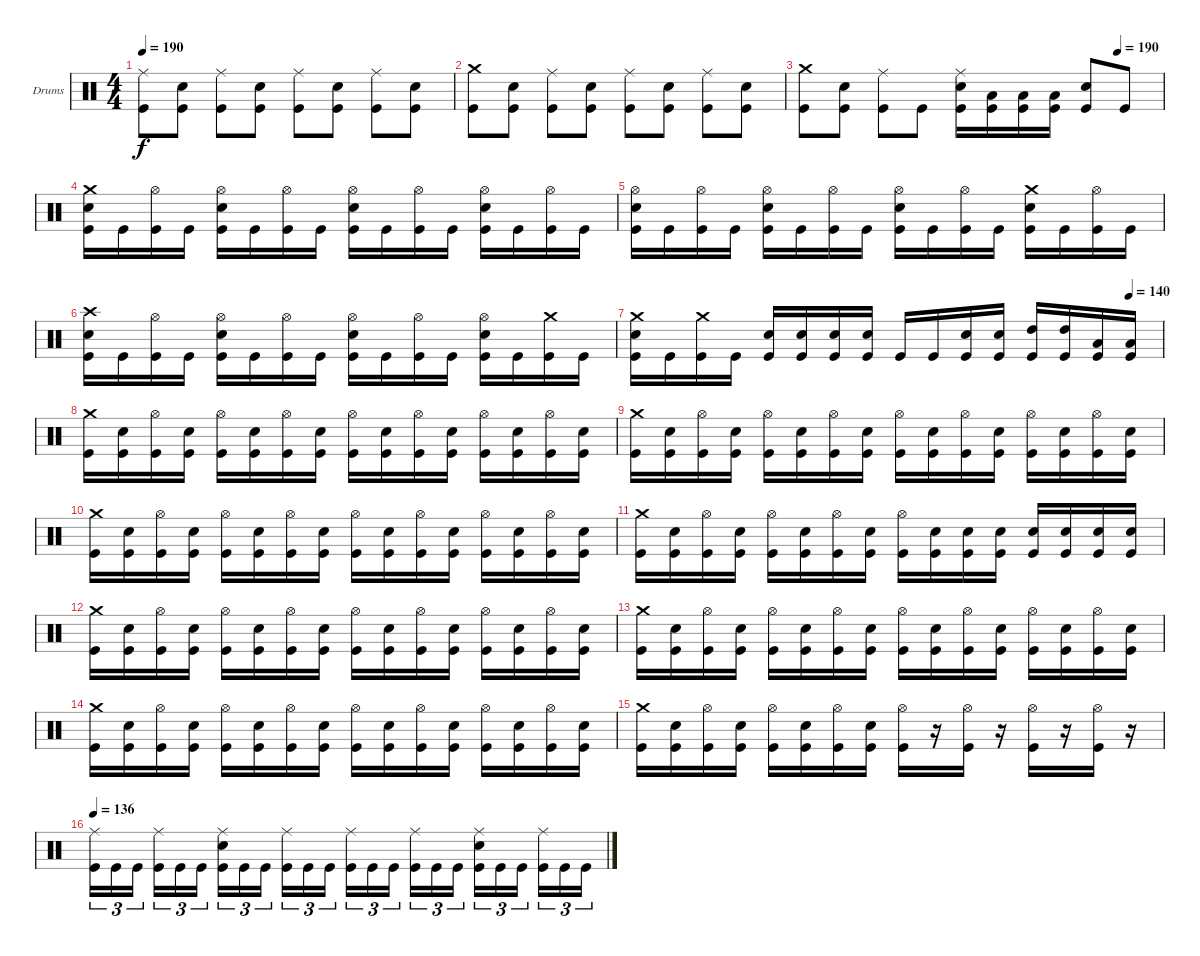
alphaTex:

\bracketExtendMode groupsimilarinstruments
\firstSystemTrackNameOrientation horizontal
\otherSystemsTrackNameOrientation horizontal
\track ("Drumkit" "Drums") {instrument percussion}
\staff {score}
\articulation defaults
\ts (4 4)
\tempo 190
\clef neutral
\ks c
("Ride (middle)" "Kick (hit)").8{dy f} ("Snare (hit) 2" "Kick (hit)").8 ("Ride (middle)" "Kick (hit)").8 ("Snare (hit) 2" "Kick (hit)").8 ("Ride (middle)" "Kick (hit)").8 ("Snare (hit) 2" "Kick (hit)").8 ("Ride (middle)" "Kick (hit)").8 ("Snare (hit) 2" "Kick (hit)").8 |
("Crash medium (hit)" "Kick (hit)").8 ("Snare (hit) 2" "Kick (hit)").8 ("Ride (middle)" "Kick (hit)").8 ("Snare (hit) 2" "Kick (hit)").8 ("Ride (middle)" "Kick (hit)").8 ("Snare (hit) 2" "Kick (hit)").8 ("Ride (middle)" "Kick (hit)").8 ("Snare (hit) 2" "Kick (hit)").8 |
\tempo (190 0.875)
("Crash medium (hit)" "Kick (hit)").8 ("Snare (hit) 2" "Kick (hit)").8 ("Ride (middle)" "Kick (hit)").8 "Kick (hit)".8 ("Ride (middle)" "Snare (hit) 2" "Kick (hit)").16 ("Low Tom (hit)" "Kick (hit)").16 ("Low Tom (hit)" "Kick (hit)").16 ("Low Tom (hit)" "Kick (hit)").16 ("Snare (hit) 2" "Kick (hit)").8 "Kick (hit)".8 |
("Crash medium (hit)" "Snare (hit) 2" "Kick (hit)").16 "Kick (hit)".16 ("Hi-Hat (open)" "Kick (hit)").16 "Kick (hit)".16 ("Hi-Hat (open)" "Snare (hit) 2" "Kick (hit)").16 "Kick (hit)".16 ("Hi-Hat (open)" "Kick (hit)").16 "Kick (hit)".16 ("Hi-Hat (open)" "Snare (hit) 2" "Kick (hit)").16 "Kick (hit)".16 ("Hi-Hat (open)" "Kick (hit)").16 "Kick (hit)".16 ("Hi-Hat (open)" "Snare (hit) 2" "Kick (hit)").16 "Kick (hit)".16 ("Hi-Hat (open)" "Kick (hit)").16 "Kick (hit)".16 |
("Hi-Hat (open)" "Snare (hit) 2" "Kick (hit)").16 "Kick (hit)".16 ("Hi-Hat (open)" "Kick (hit)").16 "Kick (hit)".16 ("Hi-Hat (open)" "Snare (hit) 2" "Kick (hit)").16 "Kick (hit)".16 ("Hi-Hat (open)" "Kick (hit)").16 "Kick (hit)".16 ("Hi-Hat (open)" "Snare (hit) 2" "Kick (hit)").16 "Kick (hit)".16 ("Hi-Hat (open)" "Kick (hit)").16 "Kick (hit)".16 ("Crash medium (hit)" "Snare (hit) 2" "Kick (hit)").16 "Kick (hit)".16 ("Hi-Hat (open)" "Kick (hit)").16 "Kick (hit)".16 |
("Crash high (hit)" "Snare (hit) 2" "Kick (hit)").16 "Kick (hit)".16 ("Hi-Hat (open)" "Kick (hit)").16 "Kick (hit)".16 ("Hi-Hat (open)" "Snare (hit) 2" "Kick (hit)").16 "Kick (hit)".16 ("Hi-Hat (open)" "Kick (hit)").16 "Kick (hit)".16 ("Hi-Hat (open)" "Snare (hit) 2" "Kick (hit)").16 "Kick (hit)".16 ("Hi-Hat (open)" "Kick (hit)").16 "Kick (hit)".16 ("Hi-Hat (open)" "Snare (hit) 2" "Kick (hit)").16 "Kick (hit)".16 ("Crash medium (hit)" "Kick (hit)").16 "Kick (hit)".16 |
\tempo (140 0.9375)
("Crash medium (hit)" "Snare (hit) 2" "Kick (hit)").16 "Kick (hit)".16 ("Crash medium (hit)" "Kick (hit)").16 "Kick (hit)".16 ("Snare (hit) 2" "Kick (hit)").16 ("Snare (hit) 2" "Kick (hit)").16 ("Snare (hit) 2" "Kick (hit)").16 ("Snare (hit) 2" "Kick (hit)").16 "Kick (hit)".16 "Kick (hit)".16 ("Snare (hit) 2" "Kick (hit)").16 ("Snare (hit) 2" "Kick (hit)").16 ("High Tom (hit)" "Kick (hit)").16 ("High Tom (hit)" "Kick (hit)").16 ("Low Tom (hit)" "Kick (hit)").16 ("Low Tom (hit)" "Kick (hit)").16 |
("Crash medium (hit)" "Kick (hit)").16 ("Snare (hit) 2" "Kick (hit)").16 ("Hi-Hat (open)" "Kick (hit)").16 ("Snare (hit) 2" "Kick (hit)").16 ("Hi-Hat (open)" "Kick (hit)").16 ("Snare (hit) 2" "Kick (hit)").16 ("Hi-Hat (open)" "Kick (hit)").16 ("Snare (hit) 2" "Kick (hit)").16 ("Hi-Hat (open)" "Kick (hit)").16 ("Snare (hit) 2" "Kick (hit)").16 ("Hi-Hat (open)" "Kick (hit)").16 ("Snare (hit) 2" "Kick (hit)").16 ("Hi-Hat (open)" "Kick (hit)").16 ("Snare (hit) 2" "Kick (hit)").16 ("Hi-Hat (open)" "Kick (hit)").16 ("Snare (hit) 2" "Kick (hit)").16 |
("Crash medium (hit)" "Kick (hit)").16 ("Snare (hit) 2" "Kick (hit)").16 ("Hi-Hat (open)" "Kick (hit)").16 ("Snare (hit) 2" "Kick (hit)").16 ("Hi-Hat (open)" "Kick (hit)").16 ("Snare (hit) 2" "Kick (hit)").16 ("Hi-Hat (open)" "Kick (hit)").16 ("Snare (hit) 2" "Kick (hit)").16 ("Hi-Hat (open)" "Kick (hit)").16 ("Snare (hit) 2" "Kick (hit)").16 ("Hi-Hat (open)" "Kick (hit)").16 ("Snare (hit) 2" "Kick (hit)").16 ("Hi-Hat (open)" "Kick (hit)").16 ("Snare (hit) 2" "Kick (hit)").16 ("Hi-Hat (open)" "Kick (hit)").16 ("Snare (hit) 2" "Kick (hit)").16 |
("Crash medium (hit)" "Kick (hit)").16 ("Snare (hit) 2" "Kick (hit)").16 ("Hi-Hat (open)" "Kick (hit)").16 ("Snare (hit) 2" "Kick (hit)").16 ("Hi-Hat (open)" "Kick (hit)").16 ("Snare (hit) 2" "Kick (hit)").16 ("Hi-Hat (open)" "Kick (hit)").16 ("Snare (hit) 2" "Kick (hit)").16 ("Hi-Hat (open)" "Kick (hit)").16 ("Snare (hit) 2" "Kick (hit)").16 ("Hi-Hat (open)" "Kick (hit)").16 ("Snare (hit) 2" "Kick (hit)").16 ("Hi-Hat (open)" "Kick (hit)").16 ("Snare (hit) 2" "Kick (hit)").16 ("Hi-Hat (open)" "Kick (hit)").16 ("Snare (hit) 2" "Kick (hit)").16 |
("Crash medium (hit)" "Kick (hit)").16 ("Snare (hit) 2" "Kick (hit)").16 ("Hi-Hat (open)" "Kick (hit)").16 ("Snare (hit) 2" "Kick (hit)").16 ("Hi-Hat (open)" "Kick (hit)").16 ("Snare (hit) 2" "Kick (hit)").16 ("Hi-Hat (open)" "Kick (hit)").16 ("Snare (hit) 2" "Kick (hit)").16 ("Hi-Hat (open)" "Kick (hit)").16 ("Snare (hit) 2" "Kick (hit)").16 ("Snare (hit) 2" "Kick (hit)").16 ("Snare (hit) 2" "Kick (hit)").16 ("Snare (hit) 2" "Kick (hit)").16 ("Snare (hit) 2" "Kick (hit)").16 ("Snare (hit) 2" "Kick (hit)").16 ("Snare (hit) 2" "Kick (hit)").16 |
("Crash medium (hit)" "Kick (hit)").16 ("Snare (hit) 2" "Kick (hit)").16 ("Hi-Hat (open)" "Kick (hit)").16 ("Snare (hit) 2" "Kick (hit)").16 ("Hi-Hat (open)" "Kick (hit)").16 ("Snare (hit) 2" "Kick (hit)").16 ("Hi-Hat (open)" "Kick (hit)").16 ("Snare (hit) 2" "Kick (hit)").16 ("Hi-Hat (open)" "Kick (hit)").16 ("Snare (hit) 2" "Kick (hit)").16 ("Hi-Hat (open)" "Kick (hit)").16 ("Snare (hit) 2" "Kick (hit)").16 ("Hi-Hat (open)" "Kick (hit)").16 ("Snare (hit) 2" "Kick (hit)").16 ("Hi-Hat (open)" "Kick (hit)").16 ("Snare (hit) 2" "Kick (hit)").16 |
("Crash medium (hit)" "Kick (hit)").16 ("Snare (hit) 2" "Kick (hit)").16 ("Hi-Hat (open)" "Kick (hit)").16 ("Snare (hit) 2" "Kick (hit)").16 ("Hi-Hat (open)" "Kick (hit)").16 ("Snare (hit) 2" "Kick (hit)").16 ("Hi-Hat (open)" "Kick (hit)").16 ("Snare (hit) 2" "Kick (hit)").16 ("Hi-Hat (open)" "Kick (hit)").16 ("Snare (hit) 2" "Kick (hit)").16 ("Hi-Hat (open)" "Kick (hit)").16 ("Snare (hit) 2" "Kick (hit)").16 ("Hi-Hat (open)" "Kick (hit)").16 ("Snare (hit) 2" "Kick (hit)").16 ("Hi-Hat (open)" "Kick (hit)").16 ("Snare (hit) 2" "Kick (hit)").16 |
("Crash medium (hit)" "Kick (hit)").16 ("Snare (hit) 2" "Kick (hit)").16 ("Hi-Hat (open)" "Kick (hit)").16 ("Snare (hit) 2" "Kick (hit)").16 ("Hi-Hat (open)" "Kick (hit)").16 ("Snare (hit) 2" "Kick (hit)").16 ("Hi-Hat (open)" "Kick (hit)").16 ("Snare (hit) 2" "Kick (hit)").16 ("Hi-Hat (open)" "Kick (hit)").16 ("Snare (hit) 2" "Kick (hit)").16 ("Hi-Hat (open)" "Kick (hit)").16 ("Snare (hit) 2" "Kick (hit)").16 ("Hi-Hat (open)" "Kick (hit)").16 ("Snare (hit) 2" "Kick (hit)").16 ("Hi-Hat (open)" "Kick (hit)").16 ("Snare (hit) 2" "Kick (hit)").16 |
("Crash medium (hit)" "Kick (hit)").16 ("Snare (hit) 2" "Kick (hit)").16 ("Hi-Hat (open)" "Kick (hit)").16 ("Snare (hit) 2" "Kick (hit)").16 ("Hi-Hat (open)" "Kick (hit)").16 ("Snare (hit) 2" "Kick (hit)").16 ("Hi-Hat (open)" "Kick (hit)").16 ("Snare (hit) 2" "Kick (hit)").16 ("Hi-Hat (open)" "Kick (hit)").16 r.16 ("Hi-Hat (open)" "Kick (hit)").16 r.16 ("Hi-Hat (open)" "Kick (hit)").16 r.16 ("Hi-Hat (open)" "Kick (hit)").16 r.16 |
\tempo 136
("Ride (middle)" "Kick (hit)").16{tu (3 2)} "Kick (hit)".16{tu (3 2)} "Kick (hit)".16{tu (3 2)} ("Ride (middle)" "Kick (hit)").16{tu (3 2)} "Kick (hit)".16{tu (3 2)} "Kick (hit)".16{tu (3 2)} ("Ride (middle)" "Snare (hit) 2" "Kick (hit)").16{tu (3 2)} "Kick (hit)".16{tu (3 2)} "Kick (hit)".16{tu (3 2)} ("Ride (middle)" "Kick (hit)").16{tu (3 2)} "Kick (hit)".16{tu (3 2)} "Kick (hit)".16{tu (3 2)} ("Ride (middle)" "Kick (hit)").16{tu (3 2)} "Kick (hit)".16{tu (3 2)} "Kick (hit)".16{tu (3 2)} ("Ride (middle)" "Kick (hit)").16{tu (3 2)} "Kick (hit)".16{tu (3 2)} "Kick (hit)".16{tu (3 2)} ("Ride (middle)" "Snare (hit) 2" "Kick (hit)").16{tu (3 2)} "Kick (hit)".16{tu (3 2)} "Kick (hit)".16{tu (3 2)} ("Ride (middle)" "Kick (hit)").16{tu (3 2)} "Kick (hit)".16{tu (3 2)} "Kick (hit)".16{tu (3 2)}
